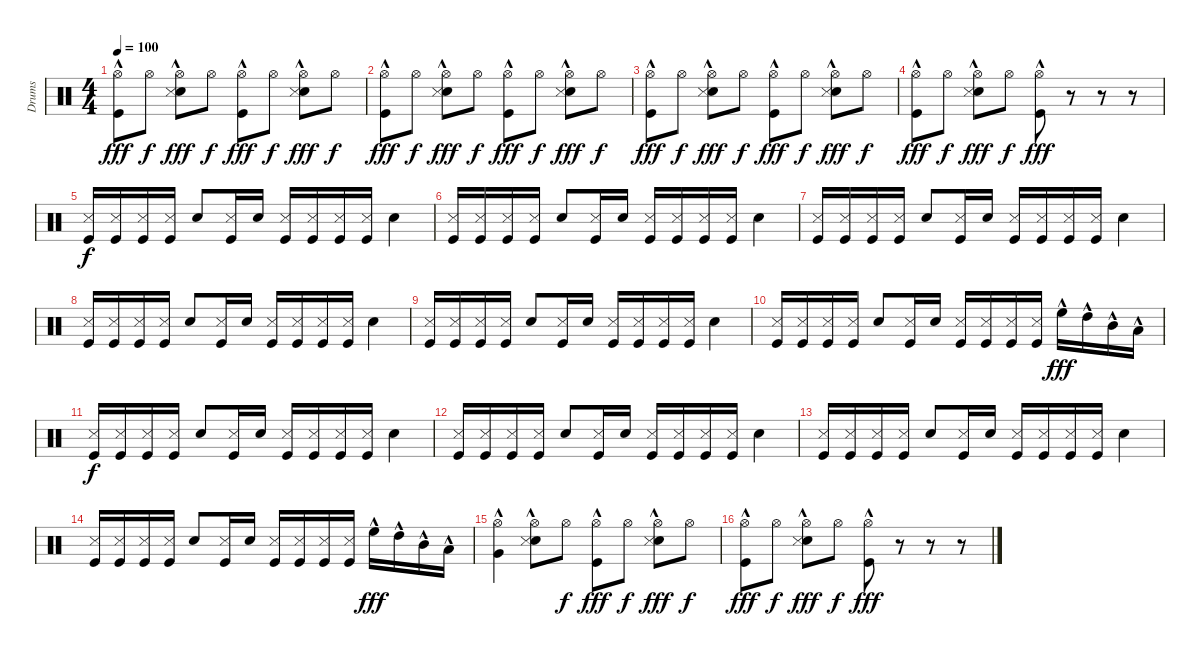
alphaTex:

\track ("Drums" "Drums") {instrument percussion}
\staff {score}
\articulation defaults
\ts (4 4)
\tempo 100
\clef neutral
\ks c
("Hi-Hat (open)" "Kick (hit)"{hac}).8{dy fff} "Hi-Hat (open)".8{dy f} ("Hi-Hat (open)" "Snare (hit) 2"{hac} "Metronome (hit)").8{dy fff} "Hi-Hat (open)".8{dy f} ("Hi-Hat (open)" "Kick (hit)"{hac}).8{dy fff} "Hi-Hat (open)".8{dy f} ("Hi-Hat (open)" "Snare (hit) 2"{hac} "Metronome (hit)").8{dy fff} "Hi-Hat (open)".8{dy f} |
("Hi-Hat (open)" "Kick (hit)"{hac}).8{dy fff} "Hi-Hat (open)".8{dy f} ("Hi-Hat (open)" "Snare (hit) 2"{hac} "Metronome (hit)").8{dy fff} "Hi-Hat (open)".8{dy f} ("Hi-Hat (open)" "Kick (hit)"{hac}).8{dy fff} "Hi-Hat (open)".8{dy f} ("Hi-Hat (open)" "Snare (hit) 2"{hac} "Metronome (hit)").8{dy fff} "Hi-Hat (open)".8{dy f} |
("Hi-Hat (open)" "Kick (hit)"{hac}).8{dy fff} "Hi-Hat (open)".8{dy f} ("Hi-Hat (open)" "Snare (hit) 2"{hac} "Metronome (hit)").8{dy fff} "Hi-Hat (open)".8{dy f} ("Hi-Hat (open)" "Kick (hit)"{hac}).8{dy fff} "Hi-Hat (open)".8{dy f} ("Hi-Hat (open)" "Snare (hit) 2"{hac} "Metronome (hit)").8{dy fff} "Hi-Hat (open)".8{dy f} |
("Hi-Hat (open)" "Kick (hit)"{hac}).8{dy fff} "Hi-Hat (open)".8{dy f} ("Hi-Hat (open)" "Snare (hit) 2"{hac} "Metronome (hit)").8{dy fff} "Hi-Hat (open)".8{dy f} ("Hi-Hat (open)" "Kick (hit)"{hac}).8{dy fff} r.8 r.8 r.8 |
("Metronome (hit)" "Kick (hit)").16{dy f} ("Metronome (hit)" "Kick (hit)").16 ("Metronome (hit)" "Kick (hit)").16 ("Metronome (hit)" "Kick (hit)").16 "Snare (hit) 2".8 ("Kick (hit)" "Metronome (hit)").16{beam Up} "Snare (hit) 2".16{beam Up} ("Kick (hit)" "Metronome (hit)").16{beam Up} ("Metronome (hit)" "Kick (hit)").16 ("Metronome (hit)" "Kick (hit)").16 ("Metronome (hit)" "Kick (hit)").16 "Snare (hit) 2".4 |
("Metronome (hit)" "Kick (hit)").16 ("Metronome (hit)" "Kick (hit)").16 ("Metronome (hit)" "Kick (hit)").16 ("Metronome (hit)" "Kick (hit)").16 "Snare (hit) 2".8 ("Kick (hit)" "Metronome (hit)").16{beam Up} "Snare (hit) 2".16{beam Up} ("Kick (hit)" "Metronome (hit)").16{beam Up} ("Metronome (hit)" "Kick (hit)").16 ("Metronome (hit)" "Kick (hit)").16 ("Metronome (hit)" "Kick (hit)").16 "Snare (hit) 2".4 |
("Metronome (hit)" "Kick (hit)").16 ("Metronome (hit)" "Kick (hit)").16 ("Metronome (hit)" "Kick (hit)").16 ("Metronome (hit)" "Kick (hit)").16 "Snare (hit) 2".8 ("Kick (hit)" "Metronome (hit)").16{beam Up} "Snare (hit) 2".16{beam Up} ("Kick (hit)" "Metronome (hit)").16{beam Up} ("Metronome (hit)" "Kick (hit)").16 ("Metronome (hit)" "Kick (hit)").16 ("Metronome (hit)" "Kick (hit)").16 "Snare (hit) 2".4 |
("Metronome (hit)" "Kick (hit)").16 ("Metronome (hit)" "Kick (hit)").16 ("Metronome (hit)" "Kick (hit)").16 ("Metronome (hit)" "Kick (hit)").16 "Snare (hit) 2".8 ("Kick (hit)" "Metronome (hit)").16{beam Up} "Snare (hit) 2".16{beam Up} ("Kick (hit)" "Metronome (hit)").16{beam Up} ("Metronome (hit)" "Kick (hit)").16 ("Metronome (hit)" "Kick (hit)").16 ("Metronome (hit)" "Kick (hit)").16 "Snare (hit) 2".4 |
("Metronome (hit)" "Kick (hit)").16 ("Metronome (hit)" "Kick (hit)").16 ("Metronome (hit)" "Kick (hit)").16 ("Metronome (hit)" "Kick (hit)").16 "Snare (hit) 2".8 ("Kick (hit)" "Metronome (hit)").16{beam Up} "Snare (hit) 2".16{beam Up} ("Kick (hit)" "Metronome (hit)").16{beam Up} ("Metronome (hit)" "Kick (hit)").16 ("Metronome (hit)" "Kick (hit)").16 ("Metronome (hit)" "Kick (hit)").16 "Snare (hit) 2".4 |
("Metronome (hit)" "Kick (hit)").16 ("Metronome (hit)" "Kick (hit)").16 ("Metronome (hit)" "Kick (hit)").16 ("Metronome (hit)" "Kick (hit)").16 "Snare (hit) 2".8 ("Kick (hit)" "Metronome (hit)").16{beam Up} "Snare (hit) 2".16{beam Up} ("Kick (hit)" "Metronome (hit)").16{beam Up} ("Metronome (hit)" "Kick (hit)").16 ("Metronome (hit)" "Kick (hit)").16 ("Metronome (hit)" "Kick (hit)").16 "High Floor Tom (hit)"{hac}.16{dy fff} "High Tom (hit)"{hac}.16 "Mid Tom (hit)"{hac}.16 "Low Tom (hit)"{hac}.16 |
("Metronome (hit)" "Kick (hit)").16{dy f} ("Metronome (hit)" "Kick (hit)").16 ("Metronome (hit)" "Kick (hit)").16 ("Metronome (hit)" "Kick (hit)").16 "Snare (hit) 2".8 ("Kick (hit)" "Metronome (hit)").16{beam Up} "Snare (hit) 2".16{beam Up} ("Kick (hit)" "Metronome (hit)").16{beam Up} ("Metronome (hit)" "Kick (hit)").16 ("Metronome (hit)" "Kick (hit)").16 ("Metronome (hit)" "Kick (hit)").16 "Snare (hit) 2".4 |
("Metronome (hit)" "Kick (hit)").16 ("Metronome (hit)" "Kick (hit)").16 ("Metronome (hit)" "Kick (hit)").16 ("Metronome (hit)" "Kick (hit)").16 "Snare (hit) 2".8 ("Kick (hit)" "Metronome (hit)").16{beam Up} "Snare (hit) 2".16{beam Up} ("Kick (hit)" "Metronome (hit)").16{beam Up} ("Metronome (hit)" "Kick (hit)").16 ("Metronome (hit)" "Kick (hit)").16 ("Metronome (hit)" "Kick (hit)").16 "Snare (hit) 2".4 |
("Metronome (hit)" "Kick (hit)").16 ("Metronome (hit)" "Kick (hit)").16 ("Metronome (hit)" "Kick (hit)").16 ("Metronome (hit)" "Kick (hit)").16 "Snare (hit) 2".8 ("Kick (hit)" "Metronome (hit)").16{beam Up} "Snare (hit) 2".16{beam Up} ("Kick (hit)" "Metronome (hit)").16{beam Up} ("Metronome (hit)" "Kick (hit)").16 ("Metronome (hit)" "Kick (hit)").16 ("Metronome (hit)" "Kick (hit)").16 "Snare (hit) 2".4 |
("Metronome (hit)" "Kick (hit)").16 ("Metronome (hit)" "Kick (hit)").16 ("Metronome (hit)" "Kick (hit)").16 ("Metronome (hit)" "Kick (hit)").16 "Snare (hit) 2".8 ("Kick (hit)" "Metronome (hit)").16{beam Up} "Snare (hit) 2".16{beam Up} ("Kick (hit)" "Metronome (hit)").16{beam Up} ("Metronome (hit)" "Kick (hit)").16 ("Metronome (hit)" "Kick (hit)").16 ("Metronome (hit)" "Kick (hit)").16 "High Floor Tom (hit)"{hac}.16{dy fff} "High Tom (hit)"{hac}.16 "Mid Tom (hit)"{hac}.16 "Low Tom (hit)"{hac}.16 |
("Very Low Tom (hit)"{hac} "Hi-Hat (open)"{hac}).4 ("Hi-Hat (open)" "Snare (hit) 2"{hac} "Metronome (hit)").8 "Hi-Hat (open)".8{dy f} ("Hi-Hat (open)" "Kick (hit)"{hac}).8{dy fff} "Hi-Hat (open)".8{dy f} ("Hi-Hat (open)" "Snare (hit) 2"{hac} "Metronome (hit)").8{dy fff} "Hi-Hat (open)".8{dy f} |
("Hi-Hat (open)" "Kick (hit)"{hac}).8{dy fff} "Hi-Hat (open)".8{dy f} ("Hi-Hat (open)" "Snare (hit) 2"{hac} "Metronome (hit)").8{dy fff} "Hi-Hat (open)".8{dy f} ("Hi-Hat (open)" "Kick (hit)"{hac}).8{dy fff} r.8 r.8 r.8
